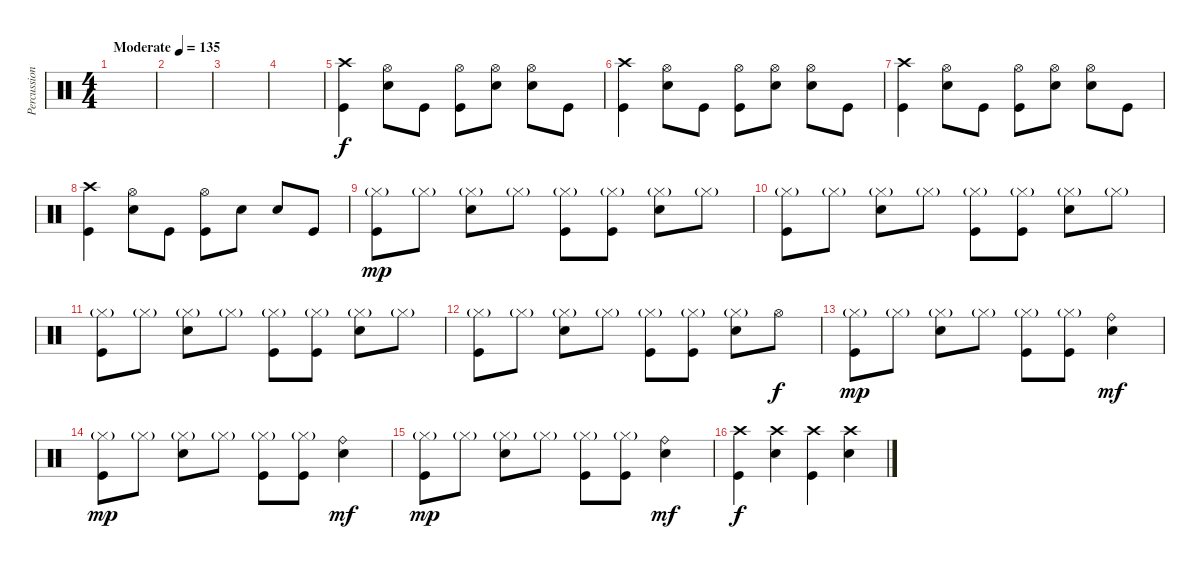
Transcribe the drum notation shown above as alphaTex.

\track ("Percussion" "Percussion") {instrument percussion}
\staff {score}
\articulation defaults
\ts (4 4)
\tempo (135 "Moderate")
\clef neutral
\ks c
|
|
|
|
("Crash high (hit)" "Kick (hit)").4 ("Hi-Hat (open)" "Electric Snare (hit)").8 "Kick (hit)".8 ("Hi-Hat (open)" "Kick (hit)").8 ("Hi-Hat (open)" "Electric Snare (hit)").8 ("Hi-Hat (open)" "Electric Snare (hit)").8 "Kick (hit)".8 |
("Crash high (hit)" "Kick (hit)").4 ("Hi-Hat (open)" "Electric Snare (hit)").8 "Kick (hit)".8 ("Hi-Hat (open)" "Kick (hit)").8 ("Hi-Hat (open)" "Electric Snare (hit)").8 ("Hi-Hat (open)" "Electric Snare (hit)").8 "Kick (hit)".8 |
("Crash high (hit)" "Kick (hit)").4 ("Hi-Hat (open)" "Electric Snare (hit)").8 "Kick (hit)".8 ("Hi-Hat (open)" "Kick (hit)").8 ("Hi-Hat (open)" "Electric Snare (hit)").8 ("Hi-Hat (open)" "Electric Snare (hit)").8 "Kick (hit)".8 |
("Crash high (hit)" "Kick (hit)").4 ("Hi-Hat (open)" "Electric Snare (hit)").8 "Kick (hit)".8 ("Hi-Hat (open)" "Kick (hit)").8 "Electric Snare (hit)".8 "Electric Snare (hit)".8 "Kick (hit)".8 |
("Hi-Hat (closed)"{g} "Kick (hit)").8{dy mp} "Hi-Hat (closed)"{g}.8 ("Hi-Hat (closed)"{g} "Electric Snare (hit)").8 "Hi-Hat (closed)"{g}.8 ("Hi-Hat (closed)"{g} "Kick (hit)").8 ("Hi-Hat (closed)"{g} "Kick (hit)").8 ("Hi-Hat (closed)"{g} "Electric Snare (hit)").8 "Hi-Hat (closed)"{g}.8 |
("Hi-Hat (closed)"{g} "Kick (hit)").8 "Hi-Hat (closed)"{g}.8 ("Hi-Hat (closed)"{g} "Electric Snare (hit)").8 "Hi-Hat (closed)"{g}.8 ("Hi-Hat (closed)"{g} "Kick (hit)").8 ("Hi-Hat (closed)"{g} "Kick (hit)").8 ("Hi-Hat (closed)"{g} "Electric Snare (hit)").8 "Hi-Hat (closed)"{g}.8 |
("Hi-Hat (closed)"{g} "Kick (hit)").8 "Hi-Hat (closed)"{g}.8 ("Hi-Hat (closed)"{g} "Electric Snare (hit)").8 "Hi-Hat (closed)"{g}.8 ("Hi-Hat (closed)"{g} "Kick (hit)").8 ("Hi-Hat (closed)"{g} "Kick (hit)").8 ("Hi-Hat (closed)"{g} "Electric Snare (hit)").8 "Hi-Hat (closed)"{g}.8 |
("Hi-Hat (closed)"{g} "Kick (hit)").8 "Hi-Hat (closed)"{g}.8 ("Hi-Hat (closed)"{g} "Electric Snare (hit)").8 "Hi-Hat (closed)"{g}.8 ("Hi-Hat (closed)"{g} "Kick (hit)").8 ("Hi-Hat (closed)"{g} "Kick (hit)").8 ("Hi-Hat (closed)"{g} "Electric Snare (hit)").8 "Hi-Hat (open)".8{dy f} |
("Hi-Hat (closed)"{g} "Kick (hit)").8{dy mp} "Hi-Hat (closed)"{g}.8 ("Hi-Hat (closed)"{g} "Electric Snare (hit)").8 "Hi-Hat (closed)"{g}.8 ("Hi-Hat (closed)"{g} "Kick (hit)").8 ("Hi-Hat (closed)"{g} "Kick (hit)").8 ("Ride (bell)" "Electric Snare (hit)").4{dy mf} |
("Hi-Hat (closed)"{g} "Kick (hit)").8{dy mp} "Hi-Hat (closed)"{g}.8 ("Hi-Hat (closed)"{g} "Electric Snare (hit)").8 "Hi-Hat (closed)"{g}.8 ("Hi-Hat (closed)"{g} "Kick (hit)").8 ("Hi-Hat (closed)"{g} "Kick (hit)").8 ("Ride (bell)" "Electric Snare (hit)").4{dy mf} |
("Hi-Hat (closed)"{g} "Kick (hit)").8{dy mp} "Hi-Hat (closed)"{g}.8 ("Hi-Hat (closed)"{g} "Electric Snare (hit)").8 "Hi-Hat (closed)"{g}.8 ("Hi-Hat (closed)"{g} "Kick (hit)").8 ("Hi-Hat (closed)"{g} "Kick (hit)").8 ("Ride (bell)" "Electric Snare (hit)").4{dy mf} |
("Crash high (hit)" "Kick (hit)").4{dy f} ("Crash high (hit)" "Electric Snare (hit)").4 ("Crash high (hit)" "Kick (hit)").4 ("Crash high (hit)" "Electric Snare (hit)").4
